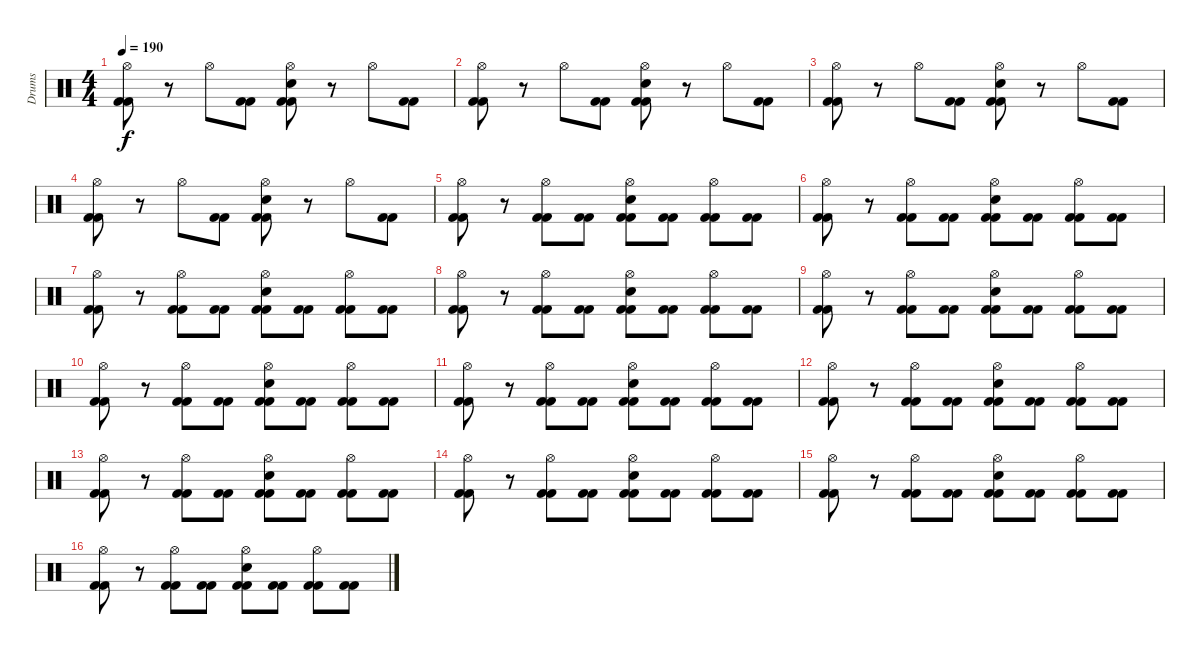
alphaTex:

\track ("Drums" "Drums") {instrument percussion}
\staff {score}
\articulation defaults
\ts (4 4)
\tempo 190
\clef neutral
\ks c
("Hi-Hat (open)" "Kick (hit) 2" "Kick (hit) 2").8{dy f} r.8 "Hi-Hat (open)".8 ("Kick (hit) 2" "Kick (hit) 2").8 ("Hi-Hat (open)" "Snare (hit) 2" "Kick (hit) 2" "Kick (hit) 2").8 r.8 "Hi-Hat (open)".8 ("Kick (hit) 2" "Kick (hit) 2").8 |
("Hi-Hat (open)" "Kick (hit) 2" "Kick (hit) 2").8 r.8 "Hi-Hat (open)".8 ("Kick (hit) 2" "Kick (hit) 2").8 ("Hi-Hat (open)" "Snare (hit) 2" "Kick (hit) 2" "Kick (hit) 2").8 r.8 "Hi-Hat (open)".8 ("Kick (hit) 2" "Kick (hit) 2").8 |
("Hi-Hat (open)" "Kick (hit) 2" "Kick (hit) 2").8 r.8 "Hi-Hat (open)".8 ("Kick (hit) 2" "Kick (hit) 2").8 ("Hi-Hat (open)" "Snare (hit) 2" "Kick (hit) 2" "Kick (hit) 2").8 r.8 "Hi-Hat (open)".8 ("Kick (hit) 2" "Kick (hit) 2").8 |
("Hi-Hat (open)" "Kick (hit) 2" "Kick (hit) 2").8 r.8 "Hi-Hat (open)".8 ("Kick (hit) 2" "Kick (hit) 2").8 ("Hi-Hat (open)" "Snare (hit) 2" "Kick (hit) 2" "Kick (hit) 2").8 r.8 "Hi-Hat (open)".8 ("Kick (hit) 2" "Kick (hit) 2").8 |
("Hi-Hat (open)" "Kick (hit) 2" "Kick (hit) 2").8 r.8 ("Hi-Hat (open)" "Kick (hit) 2" "Kick (hit) 2").8 ("Kick (hit) 2" "Kick (hit) 2").8 ("Hi-Hat (open)" "Snare (hit) 2" "Kick (hit) 2" "Kick (hit) 2").8 ("Kick (hit) 2" "Kick (hit) 2").8 ("Hi-Hat (open)" "Kick (hit) 2" "Kick (hit) 2").8 ("Kick (hit) 2" "Kick (hit) 2").8 |
("Hi-Hat (open)" "Kick (hit) 2" "Kick (hit) 2").8 r.8 ("Hi-Hat (open)" "Kick (hit) 2" "Kick (hit) 2").8 ("Kick (hit) 2" "Kick (hit) 2").8 ("Hi-Hat (open)" "Snare (hit) 2" "Kick (hit) 2" "Kick (hit) 2").8 ("Kick (hit) 2" "Kick (hit) 2").8 ("Hi-Hat (open)" "Kick (hit) 2" "Kick (hit) 2").8 ("Kick (hit) 2" "Kick (hit) 2").8 |
("Hi-Hat (open)" "Kick (hit) 2" "Kick (hit) 2").8 r.8 ("Hi-Hat (open)" "Kick (hit) 2" "Kick (hit) 2").8 ("Kick (hit) 2" "Kick (hit) 2").8 ("Hi-Hat (open)" "Snare (hit) 2" "Kick (hit) 2" "Kick (hit) 2").8 ("Kick (hit) 2" "Kick (hit) 2").8 ("Hi-Hat (open)" "Kick (hit) 2" "Kick (hit) 2").8 ("Kick (hit) 2" "Kick (hit) 2").8 |
("Hi-Hat (open)" "Kick (hit) 2" "Kick (hit) 2").8 r.8 ("Hi-Hat (open)" "Kick (hit) 2" "Kick (hit) 2").8 ("Kick (hit) 2" "Kick (hit) 2").8 ("Hi-Hat (open)" "Snare (hit) 2" "Kick (hit) 2" "Kick (hit) 2").8 ("Kick (hit) 2" "Kick (hit) 2").8 ("Hi-Hat (open)" "Kick (hit) 2" "Kick (hit) 2").8 ("Kick (hit) 2" "Kick (hit) 2").8 |
("Hi-Hat (open)" "Kick (hit) 2" "Kick (hit) 2").8 r.8 ("Hi-Hat (open)" "Kick (hit) 2" "Kick (hit) 2").8 ("Kick (hit) 2" "Kick (hit) 2").8 ("Hi-Hat (open)" "Snare (hit) 2" "Kick (hit) 2" "Kick (hit) 2").8 ("Kick (hit) 2" "Kick (hit) 2").8 ("Hi-Hat (open)" "Kick (hit) 2" "Kick (hit) 2").8 ("Kick (hit) 2" "Kick (hit) 2").8 |
("Hi-Hat (open)" "Kick (hit) 2" "Kick (hit) 2").8 r.8 ("Hi-Hat (open)" "Kick (hit) 2" "Kick (hit) 2").8 ("Kick (hit) 2" "Kick (hit) 2").8 ("Hi-Hat (open)" "Snare (hit) 2" "Kick (hit) 2" "Kick (hit) 2").8 ("Kick (hit) 2" "Kick (hit) 2").8 ("Hi-Hat (open)" "Kick (hit) 2" "Kick (hit) 2").8 ("Kick (hit) 2" "Kick (hit) 2").8 |
("Hi-Hat (open)" "Kick (hit) 2" "Kick (hit) 2").8 r.8 ("Hi-Hat (open)" "Kick (hit) 2" "Kick (hit) 2").8 ("Kick (hit) 2" "Kick (hit) 2").8 ("Hi-Hat (open)" "Snare (hit) 2" "Kick (hit) 2" "Kick (hit) 2").8 ("Kick (hit) 2" "Kick (hit) 2").8 ("Hi-Hat (open)" "Kick (hit) 2" "Kick (hit) 2").8 ("Kick (hit) 2" "Kick (hit) 2").8 |
("Hi-Hat (open)" "Kick (hit) 2" "Kick (hit) 2").8 r.8 ("Hi-Hat (open)" "Kick (hit) 2" "Kick (hit) 2").8 ("Kick (hit) 2" "Kick (hit) 2").8 ("Hi-Hat (open)" "Snare (hit) 2" "Kick (hit) 2" "Kick (hit) 2").8 ("Kick (hit) 2" "Kick (hit) 2").8 ("Hi-Hat (open)" "Kick (hit) 2" "Kick (hit) 2").8 ("Kick (hit) 2" "Kick (hit) 2").8 |
("Hi-Hat (open)" "Kick (hit) 2" "Kick (hit) 2").8 r.8 ("Hi-Hat (open)" "Kick (hit) 2" "Kick (hit) 2").8 ("Kick (hit) 2" "Kick (hit) 2").8 ("Hi-Hat (open)" "Snare (hit) 2" "Kick (hit) 2" "Kick (hit) 2").8 ("Kick (hit) 2" "Kick (hit) 2").8 ("Hi-Hat (open)" "Kick (hit) 2" "Kick (hit) 2").8 ("Kick (hit) 2" "Kick (hit) 2").8 |
("Hi-Hat (open)" "Kick (hit) 2" "Kick (hit) 2").8 r.8 ("Hi-Hat (open)" "Kick (hit) 2" "Kick (hit) 2").8 ("Kick (hit) 2" "Kick (hit) 2").8 ("Hi-Hat (open)" "Snare (hit) 2" "Kick (hit) 2" "Kick (hit) 2").8 ("Kick (hit) 2" "Kick (hit) 2").8 ("Hi-Hat (open)" "Kick (hit) 2" "Kick (hit) 2").8 ("Kick (hit) 2" "Kick (hit) 2").8 |
("Hi-Hat (open)" "Kick (hit) 2" "Kick (hit) 2").8 r.8 ("Hi-Hat (open)" "Kick (hit) 2" "Kick (hit) 2").8 ("Kick (hit) 2" "Kick (hit) 2").8 ("Hi-Hat (open)" "Snare (hit) 2" "Kick (hit) 2" "Kick (hit) 2").8 ("Kick (hit) 2" "Kick (hit) 2").8 ("Hi-Hat (open)" "Kick (hit) 2" "Kick (hit) 2").8 ("Kick (hit) 2" "Kick (hit) 2").8 |
("Hi-Hat (open)" "Kick (hit) 2" "Kick (hit) 2").8 r.8 ("Hi-Hat (open)" "Kick (hit) 2" "Kick (hit) 2").8 ("Kick (hit) 2" "Kick (hit) 2").8 ("Hi-Hat (open)" "Snare (hit) 2" "Kick (hit) 2" "Kick (hit) 2").8 ("Kick (hit) 2" "Kick (hit) 2").8 ("Hi-Hat (open)" "Kick (hit) 2" "Kick (hit) 2").8 ("Kick (hit) 2" "Kick (hit) 2").8
